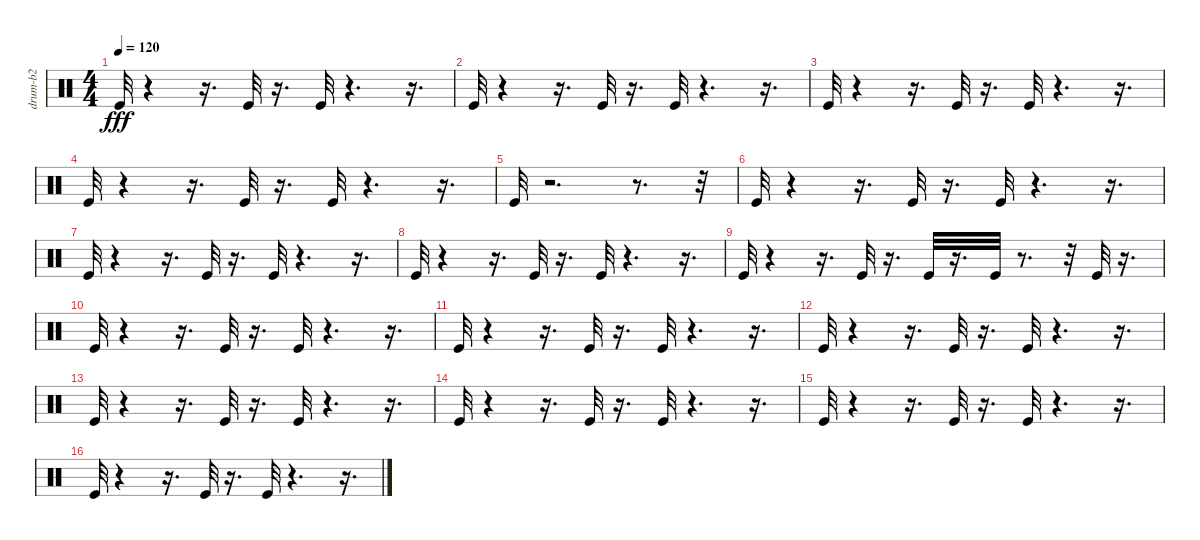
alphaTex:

\track ("drum-b2" "drum-b2") {instrument percussion}
\staff {score}
\articulation defaults
\ts (4 4)
\tempo 120
\clef neutral
\ks c "Kick (hit)".32{dy fff}
r.4 r.16{d} "Kick (hit)".32 r.16{d} "Kick (hit)".32 r.4{d} r.16{d} |
"Kick (hit)".32 r.4 r.16{d} "Kick (hit)".32 r.16{d} "Kick (hit)".32 r.4{d} r.16{d} |
"Kick (hit)".32 r.4 r.16{d} "Kick (hit)".32 r.16{d} "Kick (hit)".32 r.4{d} r.16{d} |
"Kick (hit)".32 r.4 r.16{d} "Kick (hit)".32 r.16{d} "Kick (hit)".32 r.4{d} r.16{d} |
"Kick (hit)".32 r.2{d} r.8{d} r.32 |
"Kick (hit)".32 r.4 r.16{d} "Kick (hit)".32 r.16{d} "Kick (hit)".32 r.4{d} r.16{d} |
"Kick (hit)".32 r.4 r.16{d} "Kick (hit)".32 r.16{d} "Kick (hit)".32 r.4{d} r.16{d} |
"Kick (hit)".32 r.4 r.16{d} "Kick (hit)".32 r.16{d} "Kick (hit)".32 r.4{d} r.16{d} |
"Kick (hit)".32 r.4 r.16{d} "Kick (hit)".32 r.16{d} "Kick (hit)".32 r.16{d} "Kick (hit)".32 r.8{d} r.32 "Kick (hit)".32 r.16{d} |
"Kick (hit)".32 r.4 r.16{d} "Kick (hit)".32 r.16{d} "Kick (hit)".32 r.4{d} r.16{d} |
"Kick (hit)".32 r.4 r.16{d} "Kick (hit)".32 r.16{d} "Kick (hit)".32 r.4{d} r.16{d} |
"Kick (hit)".32 r.4 r.16{d} "Kick (hit)".32 r.16{d} "Kick (hit)".32 r.4{d} r.16{d} |
"Kick (hit)".32 r.4 r.16{d} "Kick (hit)".32 r.16{d} "Kick (hit)".32 r.4{d} r.16{d} |
"Kick (hit)".32 r.4 r.16{d} "Kick (hit)".32 r.16{d} "Kick (hit)".32 r.4{d} r.16{d} |
"Kick (hit)".32 r.4 r.16{d} "Kick (hit)".32 r.16{d} "Kick (hit)".32 r.4{d} r.16{d} |
"Kick (hit)".32 r.4 r.16{d} "Kick (hit)".32 r.16{d} "Kick (hit)".32 r.4{d} r.16{d}
